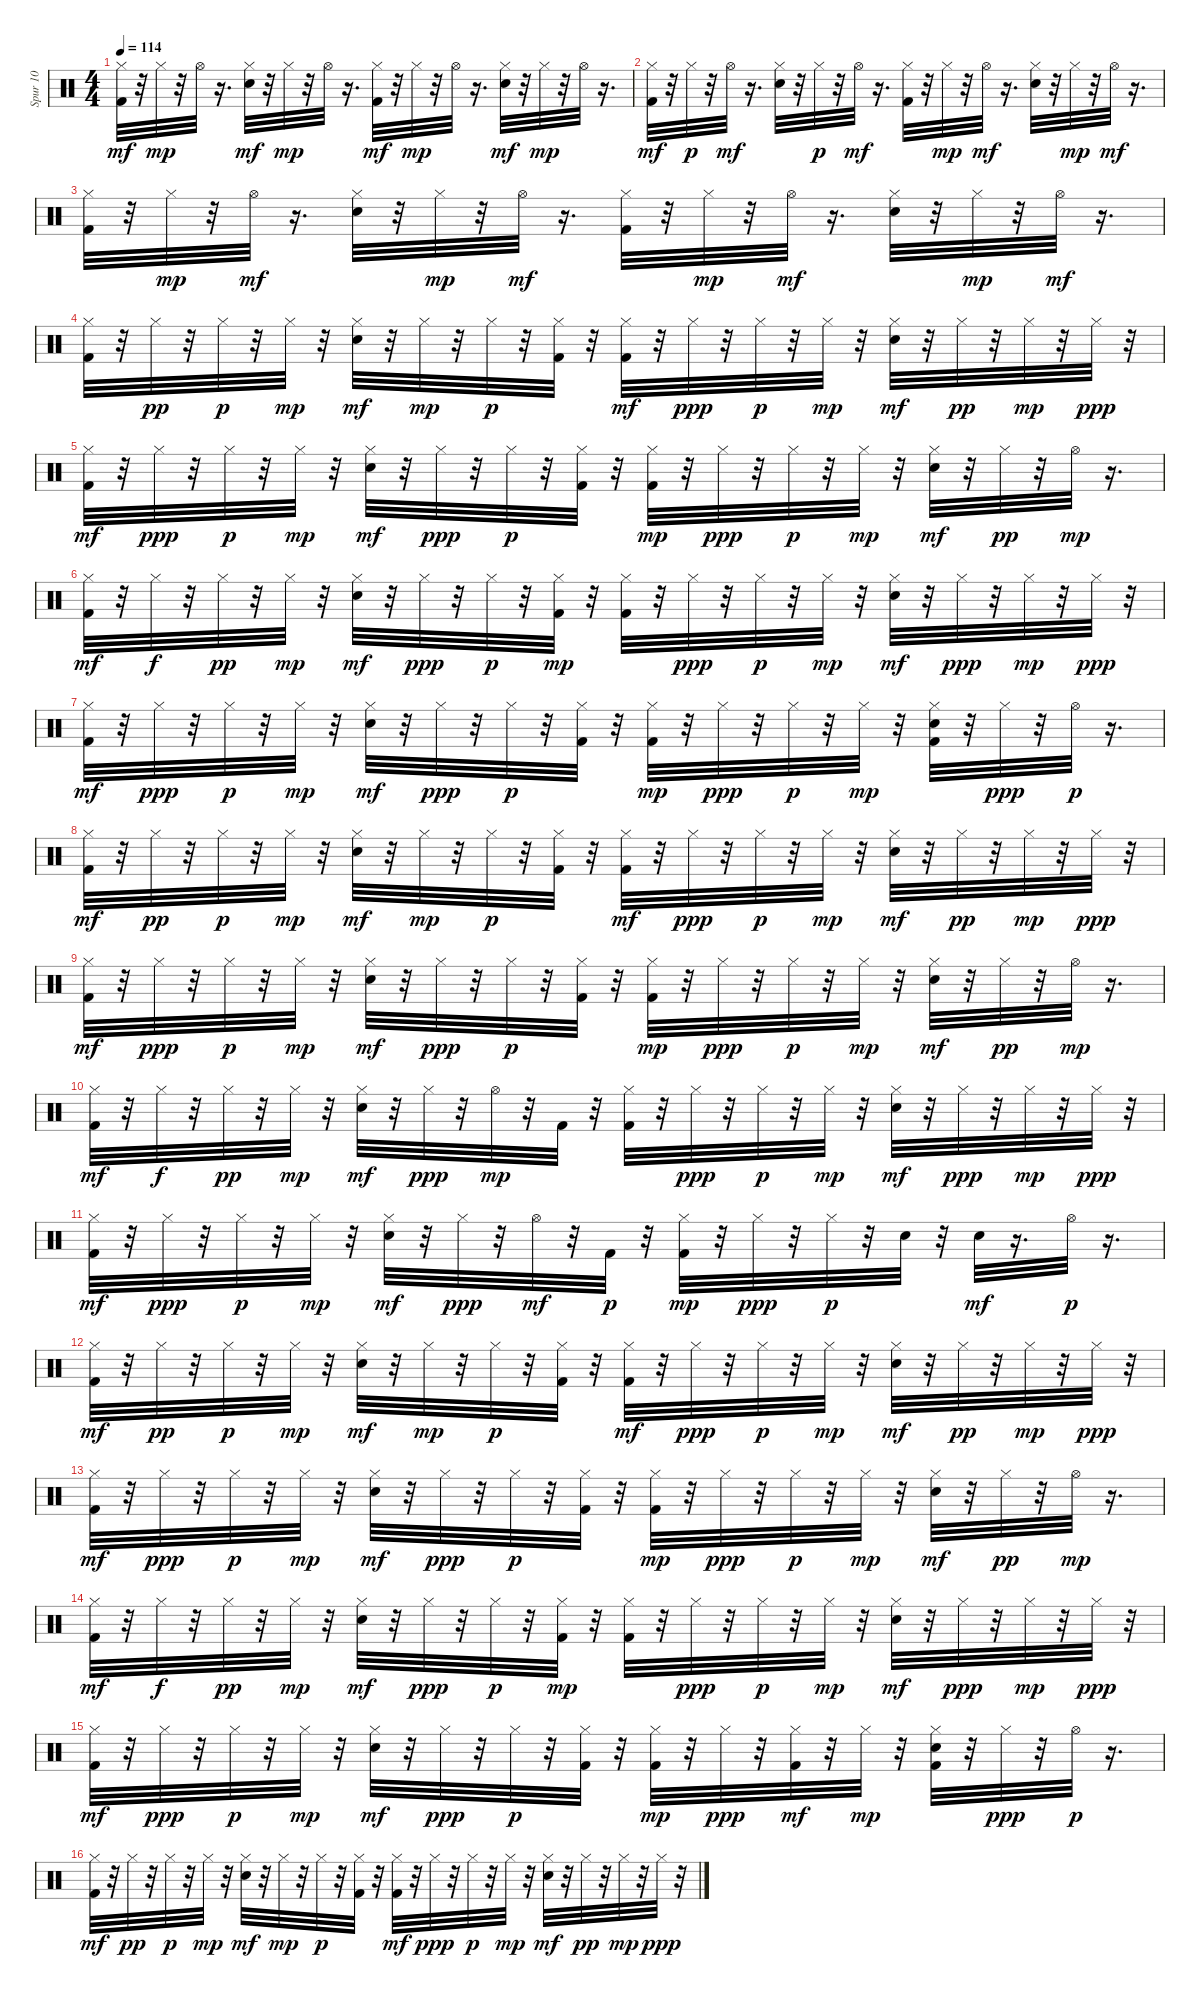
\track ("Spur 10" "Spur 10") {instrument percussion}
\staff {score}
\articulation defaults
\ts (4 4)
\tempo 114
\clef neutral
\ks c
("Hi-Hat (closed)" "Kick (hit) 2").32{dy mf} r.32 "Hi-Hat (closed)".32{dy mp} r.32 "Hi-Hat (open)".32 r.16{d} ("Hi-Hat (closed)" "Electric Snare (hit)").32{dy mf} r.32 "Hi-Hat (closed)".32{dy mp} r.32 "Hi-Hat (open)".32 r.16{d} ("Hi-Hat (closed)" "Kick (hit) 2").32{dy mf} r.32 "Hi-Hat (closed)".32{dy mp} r.32 "Hi-Hat (open)".32 r.16{d} ("Hi-Hat (closed)" "Electric Snare (hit)").32{dy mf} r.32 "Hi-Hat (closed)".32{dy mp} r.32 "Hi-Hat (open)".32 r.16{d} |
("Hi-Hat (closed)" "Kick (hit) 2").32{dy mf} r.32 "Hi-Hat (closed)".32{dy p} r.32 "Hi-Hat (open)".32{dy mf} r.16{d} ("Hi-Hat (closed)" "Electric Snare (hit)").32 r.32 "Hi-Hat (closed)".32{dy p} r.32 "Hi-Hat (open)".32{dy mf} r.16{d} ("Hi-Hat (closed)" "Kick (hit) 2").32 r.32 "Hi-Hat (closed)".32{dy mp} r.32 "Hi-Hat (open)".32{dy mf} r.16{d} ("Hi-Hat (closed)" "Electric Snare (hit)").32 r.32 "Hi-Hat (closed)".32{dy mp} r.32 "Hi-Hat (open)".32{dy mf} r.16{d} |
("Hi-Hat (closed)" "Kick (hit) 2").32 r.32 "Hi-Hat (closed)".32{dy mp} r.32 "Hi-Hat (open)".32{dy mf} r.16{d} ("Hi-Hat (closed)" "Electric Snare (hit)").32 r.32 "Hi-Hat (closed)".32{dy mp} r.32 "Hi-Hat (open)".32{dy mf} r.16{d} ("Hi-Hat (closed)" "Kick (hit) 2").32 r.32 "Hi-Hat (closed)".32{dy mp} r.32 "Hi-Hat (open)".32{dy mf} r.16{d} ("Hi-Hat (closed)" "Electric Snare (hit)").32 r.32 "Hi-Hat (closed)".32{dy mp} r.32 "Hi-Hat (open)".32{dy mf} r.16{d} |
("Hi-Hat (closed)" "Kick (hit) 2").32 r.32 "Hi-Hat (closed)".32{dy pp} r.32 "Hi-Hat (closed)".32{dy p} r.32 "Hi-Hat (closed)".32{dy mp} r.32 ("Hi-Hat (closed)" "Electric Snare (hit)").32{dy mf} r.32 "Hi-Hat (closed)".32{dy mp} r.32 "Hi-Hat (closed)".32{dy p} r.32 ("Hi-Hat (closed)" "Kick (hit) 2").32 r.32 ("Hi-Hat (closed)" "Kick (hit) 2").32{dy mf} r.32 "Hi-Hat (closed)".32{dy ppp} r.32 "Hi-Hat (closed)".32{dy p} r.32 "Hi-Hat (closed)".32{dy mp} r.32 ("Hi-Hat (closed)" "Electric Snare (hit)").32{dy mf} r.32 "Hi-Hat (closed)".32{dy pp} r.32 "Hi-Hat (closed)".32{dy mp} r.32 "Hi-Hat (closed)".32{dy ppp} r.32 |
("Hi-Hat (closed)" "Kick (hit) 2").32{dy mf} r.32 "Hi-Hat (closed)".32{dy ppp} r.32 "Hi-Hat (closed)".32{dy p} r.32 "Hi-Hat (closed)".32{dy mp} r.32 ("Hi-Hat (closed)" "Electric Snare (hit)").32{dy mf} r.32 "Hi-Hat (closed)".32{dy ppp} r.32 "Hi-Hat (closed)".32{dy p} r.32 ("Hi-Hat (closed)" "Kick (hit) 2").32 r.32 ("Hi-Hat (closed)" "Kick (hit) 2").32{dy mp} r.32 "Hi-Hat (closed)".32{dy ppp} r.32 "Hi-Hat (closed)".32{dy p} r.32 "Hi-Hat (closed)".32{dy mp} r.32 ("Hi-Hat (closed)" "Electric Snare (hit)").32{dy mf} r.32 "Hi-Hat (closed)".32{dy pp} r.32 "Hi-Hat (open)".32{dy mp} r.16{d} |
("Hi-Hat (closed)" "Kick (hit) 2").32{dy mf} r.32 "Hi-Hat (closed)".32{dy f} r.32 "Hi-Hat (closed)".32{dy pp} r.32 "Hi-Hat (closed)".32{dy mp} r.32 ("Hi-Hat (closed)" "Electric Snare (hit)").32{dy mf} r.32 "Hi-Hat (closed)".32{dy ppp} r.32 "Hi-Hat (closed)".32{dy p} r.32 ("Hi-Hat (closed)" "Kick (hit) 2").32{dy mp} r.32 ("Hi-Hat (closed)" "Kick (hit) 2").32 r.32 "Hi-Hat (closed)".32{dy ppp} r.32 "Hi-Hat (closed)".32{dy p} r.32 "Hi-Hat (closed)".32{dy mp} r.32 ("Hi-Hat (closed)" "Electric Snare (hit)").32{dy mf} r.32 "Hi-Hat (closed)".32{dy ppp} r.32 "Hi-Hat (closed)".32{dy mp} r.32 "Hi-Hat (closed)".32{dy ppp} r.32 |
("Hi-Hat (closed)" "Kick (hit) 2").32{dy mf} r.32 "Hi-Hat (closed)".32{dy ppp} r.32 "Hi-Hat (closed)".32{dy p} r.32 "Hi-Hat (closed)".32{dy mp} r.32 ("Hi-Hat (closed)" "Electric Snare (hit)").32{dy mf} r.32 "Hi-Hat (closed)".32{dy ppp} r.32 "Hi-Hat (closed)".32{dy p} r.32 ("Hi-Hat (closed)" "Kick (hit) 2").32 r.32 ("Hi-Hat (closed)" "Kick (hit) 2").32{dy mp} r.32 "Hi-Hat (closed)".32{dy ppp} r.32 "Hi-Hat (closed)".32{dy p} r.32 "Hi-Hat (closed)".32{dy mp} r.32 ("Hi-Hat (closed)" "Electric Snare (hit)" "Kick (hit) 2").32 r.32 "Hi-Hat (closed)".32{dy ppp} r.32 "Hi-Hat (open)".32{dy p} r.16{d} |
("Hi-Hat (closed)" "Kick (hit) 2").32{dy mf} r.32 "Hi-Hat (closed)".32{dy pp} r.32 "Hi-Hat (closed)".32{dy p} r.32 "Hi-Hat (closed)".32{dy mp} r.32 ("Hi-Hat (closed)" "Electric Snare (hit)").32{dy mf} r.32 "Hi-Hat (closed)".32{dy mp} r.32 "Hi-Hat (closed)".32{dy p} r.32 ("Hi-Hat (closed)" "Kick (hit) 2").32 r.32 ("Hi-Hat (closed)" "Kick (hit) 2").32{dy mf} r.32 "Hi-Hat (closed)".32{dy ppp} r.32 "Hi-Hat (closed)".32{dy p} r.32 "Hi-Hat (closed)".32{dy mp} r.32 ("Hi-Hat (closed)" "Electric Snare (hit)").32{dy mf} r.32 "Hi-Hat (closed)".32{dy pp} r.32 "Hi-Hat (closed)".32{dy mp} r.32 "Hi-Hat (closed)".32{dy ppp} r.32 |
("Hi-Hat (closed)" "Kick (hit) 2").32{dy mf} r.32 "Hi-Hat (closed)".32{dy ppp} r.32 "Hi-Hat (closed)".32{dy p} r.32 "Hi-Hat (closed)".32{dy mp} r.32 ("Hi-Hat (closed)" "Electric Snare (hit)").32{dy mf} r.32 "Hi-Hat (closed)".32{dy ppp} r.32 "Hi-Hat (closed)".32{dy p} r.32 ("Hi-Hat (closed)" "Kick (hit) 2").32 r.32 ("Hi-Hat (closed)" "Kick (hit) 2").32{dy mp} r.32 "Hi-Hat (closed)".32{dy ppp} r.32 "Hi-Hat (closed)".32{dy p} r.32 "Hi-Hat (closed)".32{dy mp} r.32 ("Hi-Hat (closed)" "Electric Snare (hit)").32{dy mf} r.32 "Hi-Hat (closed)".32{dy pp} r.32 "Hi-Hat (open)".32{dy mp} r.16{d} |
("Hi-Hat (closed)" "Kick (hit) 2").32{dy mf} r.32 "Hi-Hat (closed)".32{dy f} r.32 "Hi-Hat (closed)".32{dy pp} r.32 "Hi-Hat (closed)".32{dy mp} r.32 ("Hi-Hat (closed)" "Electric Snare (hit)").32{dy mf} r.32 "Hi-Hat (closed)".32{dy ppp} r.32 "Hi-Hat (open)".32{dy mp} r.32 "Kick (hit) 2".32 r.32 ("Hi-Hat (closed)" "Kick (hit) 2").32 r.32 "Hi-Hat (closed)".32{dy ppp} r.32 "Hi-Hat (closed)".32{dy p} r.32 "Hi-Hat (closed)".32{dy mp} r.32 ("Hi-Hat (closed)" "Electric Snare (hit)").32{dy mf} r.32 "Hi-Hat (closed)".32{dy ppp} r.32 "Hi-Hat (closed)".32{dy mp} r.32 "Hi-Hat (closed)".32{dy ppp} r.32 |
("Hi-Hat (closed)" "Kick (hit) 2").32{dy mf} r.32 "Hi-Hat (closed)".32{dy ppp} r.32 "Hi-Hat (closed)".32{dy p} r.32 "Hi-Hat (closed)".32{dy mp} r.32 ("Hi-Hat (closed)" "Electric Snare (hit)").32{dy mf} r.32 "Hi-Hat (closed)".32{dy ppp} r.32 "Hi-Hat (open)".32{dy mf} r.32 "Kick (hit) 2".32{dy p} r.32 ("Hi-Hat (closed)" "Kick (hit) 2").32{dy mp} r.32 "Hi-Hat (closed)".32{dy ppp} r.32 "Hi-Hat (closed)".32{dy p} r.32 "Electric Snare (hit)".32 r.32 "Electric Snare (hit)".32{dy mf} r.16{d} "Hi-Hat (open)".32{dy p} r.16{d} |
("Hi-Hat (closed)" "Kick (hit) 2").32{dy mf} r.32 "Hi-Hat (closed)".32{dy pp} r.32 "Hi-Hat (closed)".32{dy p} r.32 "Hi-Hat (closed)".32{dy mp} r.32 ("Hi-Hat (closed)" "Electric Snare (hit)").32{dy mf} r.32 "Hi-Hat (closed)".32{dy mp} r.32 "Hi-Hat (closed)".32{dy p} r.32 ("Hi-Hat (closed)" "Kick (hit) 2").32 r.32 ("Hi-Hat (closed)" "Kick (hit) 2").32{dy mf} r.32 "Hi-Hat (closed)".32{dy ppp} r.32 "Hi-Hat (closed)".32{dy p} r.32 "Hi-Hat (closed)".32{dy mp} r.32 ("Hi-Hat (closed)" "Electric Snare (hit)").32{dy mf} r.32 "Hi-Hat (closed)".32{dy pp} r.32 "Hi-Hat (closed)".32{dy mp} r.32 "Hi-Hat (closed)".32{dy ppp} r.32 |
("Hi-Hat (closed)" "Kick (hit) 2").32{dy mf} r.32 "Hi-Hat (closed)".32{dy ppp} r.32 "Hi-Hat (closed)".32{dy p} r.32 "Hi-Hat (closed)".32{dy mp} r.32 ("Hi-Hat (closed)" "Electric Snare (hit)").32{dy mf} r.32 "Hi-Hat (closed)".32{dy ppp} r.32 "Hi-Hat (closed)".32{dy p} r.32 ("Hi-Hat (closed)" "Kick (hit) 2").32 r.32 ("Hi-Hat (closed)" "Kick (hit) 2").32{dy mp} r.32 "Hi-Hat (closed)".32{dy ppp} r.32 "Hi-Hat (closed)".32{dy p} r.32 "Hi-Hat (closed)".32{dy mp} r.32 ("Hi-Hat (closed)" "Electric Snare (hit)").32{dy mf} r.32 "Hi-Hat (closed)".32{dy pp} r.32 "Hi-Hat (open)".32{dy mp} r.16{d} |
("Hi-Hat (closed)" "Kick (hit) 2").32{dy mf} r.32 "Hi-Hat (closed)".32{dy f} r.32 "Hi-Hat (closed)".32{dy pp} r.32 "Hi-Hat (closed)".32{dy mp} r.32 ("Hi-Hat (closed)" "Electric Snare (hit)").32{dy mf} r.32 "Hi-Hat (closed)".32{dy ppp} r.32 "Hi-Hat (closed)".32{dy p} r.32 ("Hi-Hat (closed)" "Kick (hit) 2").32{dy mp} r.32 ("Hi-Hat (closed)" "Kick (hit) 2").32 r.32 "Hi-Hat (closed)".32{dy ppp} r.32 "Hi-Hat (closed)".32{dy p} r.32 "Hi-Hat (closed)".32{dy mp} r.32 ("Hi-Hat (closed)" "Electric Snare (hit)").32{dy mf} r.32 "Hi-Hat (closed)".32{dy ppp} r.32 "Hi-Hat (closed)".32{dy mp} r.32 "Hi-Hat (closed)".32{dy ppp} r.32 |
("Hi-Hat (closed)" "Kick (hit) 2").32{dy mf} r.32 "Hi-Hat (closed)".32{dy ppp} r.32 "Hi-Hat (closed)".32{dy p} r.32 "Hi-Hat (closed)".32{dy mp} r.32 ("Hi-Hat (closed)" "Electric Snare (hit)").32{dy mf} r.32 "Hi-Hat (closed)".32{dy ppp} r.32 "Hi-Hat (closed)".32{dy p} r.32 ("Hi-Hat (closed)" "Kick (hit) 2").32 r.32 ("Hi-Hat (closed)" "Kick (hit) 2").32{dy mp} r.32 "Hi-Hat (closed)".32{dy ppp} r.32 ("Hi-Hat (closed)" "Kick (hit) 2").32{dy mf} r.32 "Hi-Hat (closed)".32{dy mp} r.32 ("Hi-Hat (closed)" "Electric Snare (hit)" "Kick (hit) 2").32 r.32 "Hi-Hat (closed)".32{dy ppp} r.32 "Hi-Hat (open)".32{dy p} r.16{d} |
("Hi-Hat (closed)" "Kick (hit) 2").32{dy mf} r.32 "Hi-Hat (closed)".32{dy pp} r.32 "Hi-Hat (closed)".32{dy p} r.32 "Hi-Hat (closed)".32{dy mp} r.32 ("Hi-Hat (closed)" "Electric Snare (hit)").32{dy mf} r.32 "Hi-Hat (closed)".32{dy mp} r.32 "Hi-Hat (closed)".32{dy p} r.32 ("Hi-Hat (closed)" "Kick (hit) 2").32 r.32 ("Hi-Hat (closed)" "Kick (hit) 2").32{dy mf} r.32 "Hi-Hat (closed)".32{dy ppp} r.32 "Hi-Hat (closed)".32{dy p} r.32 "Hi-Hat (closed)".32{dy mp} r.32 ("Hi-Hat (closed)" "Electric Snare (hit)").32{dy mf} r.32 "Hi-Hat (closed)".32{dy pp} r.32 "Hi-Hat (closed)".32{dy mp} r.32 "Hi-Hat (closed)".32{dy ppp} r.32
